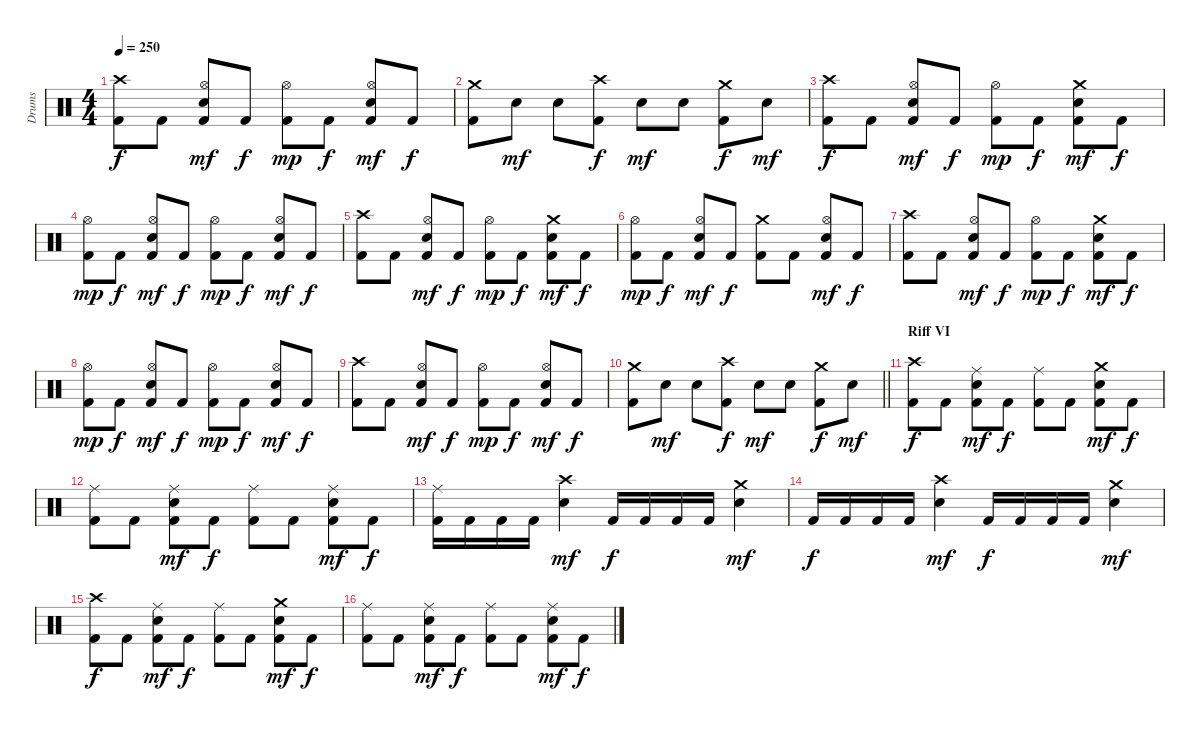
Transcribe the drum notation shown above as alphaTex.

\track ("Drums" "Drums") {instrument percussion}
\staff {score}
\articulation defaults
\ts (4 4)
\tempo 250
\clef neutral
\ks c
("Crash high (hit)" "Kick (hit) 2").8{dy f} "Kick (hit) 2".8 ("Hi-Hat (open)" "Electric Snare (hit)" "Kick (hit) 2").8{dy mf} "Kick (hit) 2".8{dy f} ("Hi-Hat (open)" "Kick (hit) 2").8{dy mp} "Kick (hit) 2".8{dy f} ("Hi-Hat (open)" "Electric Snare (hit)" "Kick (hit) 2").8{dy mf} "Kick (hit) 2".8{dy f} |
("Crash medium (hit)" "Kick (hit) 2").8 "Electric Snare (hit)".8{dy mf} "Electric Snare (hit)".8 ("Crash high (hit)" "Kick (hit) 2").8{dy f} "Electric Snare (hit)".8{dy mf} "Electric Snare (hit)".8 ("Crash medium (hit)" "Kick (hit) 2").8{dy f} "Electric Snare (hit)".8{dy mf} |
("Crash high (hit)" "Kick (hit) 2").8{dy f} "Kick (hit) 2".8 ("Hi-Hat (open)" "Electric Snare (hit)" "Kick (hit) 2").8{dy mf} "Kick (hit) 2".8{dy f} ("Hi-Hat (open)" "Kick (hit) 2").8{dy mp} "Kick (hit) 2".8{dy f} ("Crash medium (hit)" "Electric Snare (hit)" "Kick (hit) 2").8{dy mf} "Kick (hit) 2".8{dy f} |
("Hi-Hat (open)" "Kick (hit) 2").8{dy mp} "Kick (hit) 2".8{dy f} ("Hi-Hat (open)" "Electric Snare (hit)" "Kick (hit) 2").8{dy mf} "Kick (hit) 2".8{dy f} ("Hi-Hat (open)" "Kick (hit) 2").8{dy mp} "Kick (hit) 2".8{dy f} ("Hi-Hat (open)" "Electric Snare (hit)" "Kick (hit) 2").8{dy mf} "Kick (hit) 2".8{dy f} |
("Crash high (hit)" "Kick (hit) 2").8 "Kick (hit) 2".8 ("Hi-Hat (open)" "Electric Snare (hit)" "Kick (hit) 2").8{dy mf} "Kick (hit) 2".8{dy f} ("Hi-Hat (open)" "Kick (hit) 2").8{dy mp} "Kick (hit) 2".8{dy f} ("Crash medium (hit)" "Electric Snare (hit)" "Kick (hit) 2").8{dy mf} "Kick (hit) 2".8{dy f} |
("Hi-Hat (open)" "Kick (hit) 2").8{dy mp} "Kick (hit) 2".8{dy f} ("Hi-Hat (open)" "Electric Snare (hit)" "Kick (hit) 2").8{dy mf} "Kick (hit) 2".8{dy f} ("Crash medium (hit)" "Kick (hit) 2").8 "Kick (hit) 2".8 ("Hi-Hat (open)" "Electric Snare (hit)" "Kick (hit) 2").8{dy mf} "Kick (hit) 2".8{dy f} |
("Crash high (hit)" "Kick (hit) 2").8 "Kick (hit) 2".8 ("Hi-Hat (open)" "Electric Snare (hit)" "Kick (hit) 2").8{dy mf} "Kick (hit) 2".8{dy f} ("Hi-Hat (open)" "Kick (hit) 2").8{dy mp} "Kick (hit) 2".8{dy f} ("Crash medium (hit)" "Electric Snare (hit)" "Kick (hit) 2").8{dy mf} "Kick (hit) 2".8{dy f} |
("Hi-Hat (open)" "Kick (hit) 2").8{dy mp} "Kick (hit) 2".8{dy f} ("Hi-Hat (open)" "Electric Snare (hit)" "Kick (hit) 2").8{dy mf} "Kick (hit) 2".8{dy f} ("Hi-Hat (open)" "Kick (hit) 2").8{dy mp} "Kick (hit) 2".8{dy f} ("Hi-Hat (open)" "Electric Snare (hit)" "Kick (hit) 2").8{dy mf} "Kick (hit) 2".8{dy f} |
("Crash high (hit)" "Kick (hit) 2").8 "Kick (hit) 2".8 ("Hi-Hat (open)" "Electric Snare (hit)" "Kick (hit) 2").8{dy mf} "Kick (hit) 2".8{dy f} ("Hi-Hat (open)" "Kick (hit) 2").8{dy mp} "Kick (hit) 2".8{dy f} ("Hi-Hat (open)" "Electric Snare (hit)" "Kick (hit) 2").8{dy mf} "Kick (hit) 2".8{dy f} |
\barLineRight lightlight
("Crash medium (hit)" "Kick (hit) 2").8 "Electric Snare (hit)".8{dy mf} "Electric Snare (hit)".8 ("Crash high (hit)" "Kick (hit) 2").8{dy f} "Electric Snare (hit)".8{dy mf} "Electric Snare (hit)".8 ("Crash medium (hit)" "Kick (hit) 2").8{dy f} "Electric Snare (hit)".8{dy mf} |
\section ("" "Riff VI")
("Crash high (hit)" "Kick (hit) 2").8{dy f} "Kick (hit) 2".8 ("Ride (middle)" "Electric Snare (hit)" "Kick (hit) 2").8{dy mf} "Kick (hit) 2".8{dy f} ("Ride (middle)" "Kick (hit) 2").8 "Kick (hit) 2".8 ("Crash medium (hit)" "Electric Snare (hit)" "Kick (hit) 2").8{dy mf} "Kick (hit) 2".8{dy f} |
("Ride (middle)" "Kick (hit) 2").8 "Kick (hit) 2".8 ("Ride (middle)" "Electric Snare (hit)" "Kick (hit) 2").8{dy mf} "Kick (hit) 2".8{dy f} ("Ride (middle)" "Kick (hit) 2").8 "Kick (hit) 2".8 ("Ride (middle)" "Electric Snare (hit)" "Kick (hit) 2").8{dy mf} "Kick (hit) 2".8{dy f} |
("Ride (middle)" "Kick (hit) 2").16 "Kick (hit) 2".16 "Kick (hit) 2".16 "Kick (hit) 2".16 ("Crash high (hit)" "Electric Snare (hit)").4{dy mf} "Kick (hit) 2".16{dy f} "Kick (hit) 2".16 "Kick (hit) 2".16 "Kick (hit) 2".16 ("Crash medium (hit)" "Electric Snare (hit)").4{dy mf} |
"Kick (hit) 2".16{dy f} "Kick (hit) 2".16 "Kick (hit) 2".16 "Kick (hit) 2".16 ("Crash high (hit)" "Electric Snare (hit)").4{dy mf} "Kick (hit) 2".16{dy f} "Kick (hit) 2".16 "Kick (hit) 2".16 "Kick (hit) 2".16 ("Crash medium (hit)" "Electric Snare (hit)").4{dy mf} |
("Crash high (hit)" "Kick (hit) 2").8{dy f} "Kick (hit) 2".8 ("Ride (middle)" "Electric Snare (hit)" "Kick (hit) 2").8{dy mf} "Kick (hit) 2".8{dy f} ("Ride (middle)" "Kick (hit) 2").8 "Kick (hit) 2".8 ("Crash medium (hit)" "Electric Snare (hit)" "Kick (hit) 2").8{dy mf} "Kick (hit) 2".8{dy f} |
("Ride (middle)" "Kick (hit) 2").8 "Kick (hit) 2".8 ("Ride (middle)" "Electric Snare (hit)" "Kick (hit) 2").8{dy mf} "Kick (hit) 2".8{dy f} ("Ride (middle)" "Kick (hit) 2").8 "Kick (hit) 2".8 ("Ride (middle)" "Electric Snare (hit)" "Kick (hit) 2").8{dy mf} "Kick (hit) 2".8{dy f}
